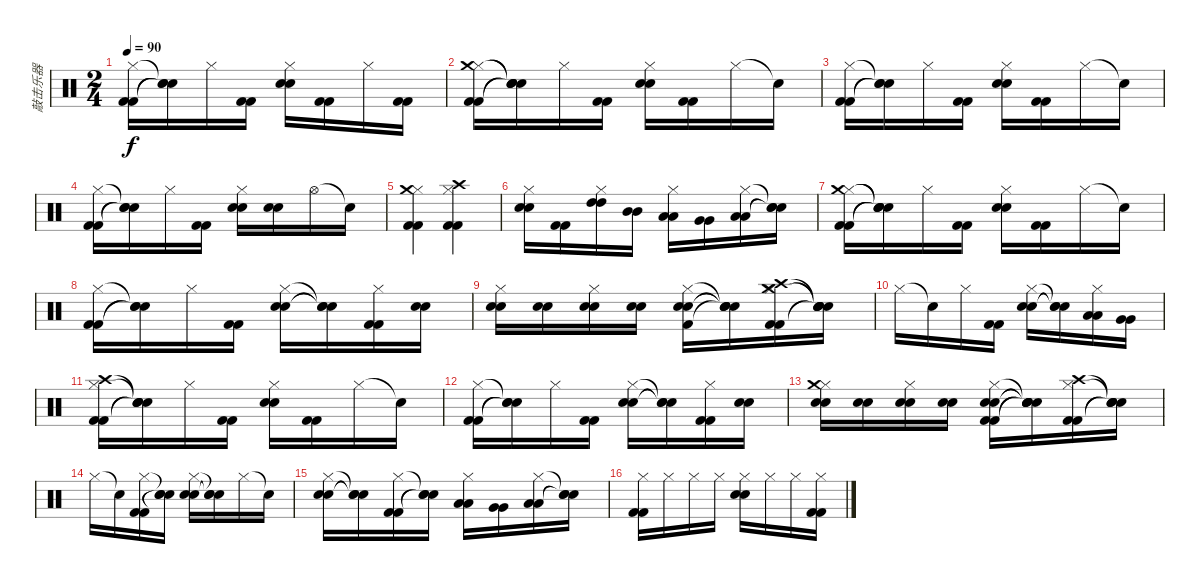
\track ("敲击乐器" "敲击乐器") {instrument percussion}
\staff {score}
\articulation defaults
\ts (2 4)
\tempo 90
\clef neutral
\ks c
("Hi-Hat (closed)" "Kick (hit) 2" "Kick (hit) 2").16{dy f} ("Snare (hit)"{t} "Snare (hit)"{t} "Snare (hit)"{t}).16 "Hi-Hat (closed)".16 ("Kick (hit) 2" "Kick (hit) 2").16 ("Hi-Hat (closed)" "Electric Snare (hit)" "Electric Snare (hit)").16 ("Kick (hit) 2" "Kick (hit) 2").16 "Hi-Hat (closed)".16 ("Kick (hit) 2" "Kick (hit) 2").16 |
("Hi-Hat (closed)" "Crash medium (hit)" "Kick (hit) 2" "Kick (hit) 2").16 ("Snare (hit)"{t} "Snare (hit)"{t} "Snare (hit)"{t} "Snare (hit)"{t}).16 "Hi-Hat (closed)".16 ("Kick (hit) 2" "Kick (hit) 2").16 ("Hi-Hat (closed)" "Electric Snare (hit)" "Electric Snare (hit)").16 ("Kick (hit) 2" "Kick (hit) 2").16 "Hi-Hat (closed)".16 "Snare (hit)"{t}.16 |
("Hi-Hat (closed)" "Kick (hit) 2" "Kick (hit) 2").16 ("Snare (hit)"{t} "Snare (hit)"{t} "Snare (hit)"{t}).16 "Hi-Hat (closed)".16 ("Kick (hit) 2" "Kick (hit) 2").16 ("Hi-Hat (closed)" "Electric Snare (hit)" "Electric Snare (hit)").16 ("Kick (hit) 2" "Kick (hit) 2").16 "Hi-Hat (closed)".16 "Snare (hit)"{t}.16 |
("Hi-Hat (closed)" "Kick (hit) 2" "Kick (hit) 2").16 ("Snare (hit)"{t} "Snare (hit)"{t} "Snare (hit)"{t}).16 "Hi-Hat (closed)".16 ("Kick (hit) 2" "Kick (hit) 2").16 ("Hi-Hat (closed)" "Electric Snare (hit)" "Electric Snare (hit)").16 ("Electric Snare (hit)" "Electric Snare (hit)").16 "Hi-Hat (open)".16 "Snare (hit)"{t}.16 |
("Hi-Hat (closed)" "Crash medium (hit)" "Kick (hit) 2" "Kick (hit) 2").4 ("Hi-Hat (closed)" "Crash high (hit)" "Kick (hit) 2" "Kick (hit) 2").4 |
("Hi-Hat (closed)" "Electric Snare (hit)" "Electric Snare (hit)").16 ("Kick (hit) 2" "Kick (hit) 2").16 ("Hi-Hat (closed)" "High Tom (hit)" "High Tom (hit)").16 ("Mid Tom (hit)" "Mid Tom (hit)").16 ("Hi-Hat (closed)" "Low Tom (hit)" "Low Tom (hit)").16 ("Very Low Tom (hit)" "Very Low Tom (hit)").16 ("Hi-Hat (closed)" "Low Floor Tom (hit)" "Low Floor Tom (hit)").16 ("Snare (hit)"{t} "Snare (hit)"{t} "Snare (hit)"{t}).16 |
("Hi-Hat (closed)" "Crash medium (hit)" "Kick (hit) 2" "Kick (hit) 2").16 ("Snare (hit)"{t} "Snare (hit)"{t} "Snare (hit)"{t} "Snare (hit)"{t}).16 "Hi-Hat (closed)".16 ("Kick (hit) 2" "Kick (hit) 2").16 ("Hi-Hat (closed)" "Electric Snare (hit)" "Electric Snare (hit)").16 ("Kick (hit) 2" "Kick (hit) 2").16 "Hi-Hat (closed)".16 "Snare (hit)"{t}.16 |
("Hi-Hat (closed)" "Kick (hit) 2" "Kick (hit) 2").16 ("Snare (hit)"{t} "Snare (hit)"{t} "Snare (hit)"{t}).16 "Hi-Hat (closed)".16 ("Kick (hit) 2" "Kick (hit) 2").16 ("Hi-Hat (closed)" "Electric Snare (hit)" "Electric Snare (hit)").16 ("Snare (hit)"{t} "Snare (hit)"{t} "Snare (hit)"{t}).16 ("Hi-Hat (closed)" "Kick (hit) 2" "Kick (hit) 2").16 ("Snare (hit) 2" "Snare (hit) 2").16 |
("Hi-Hat (closed)" "Snare (hit) 2" "Snare (hit) 2").16 ("Snare (hit) 2" "Snare (hit) 2").16 ("Hi-Hat (closed)" "Snare (hit) 2" "Snare (hit) 2").16 ("Snare (hit) 2" "Snare (hit) 2").16 ("Hi-Hat (closed)" "Snare (hit) 2" "Snare (hit) 2" "Kick (hit) 2").16 ("Snare (hit)"{t} "Snare (hit)"{t} "Snare (hit)"{t} "Snare (hit)"{t}).16 ("Hi-Hat (closed)" "Crash medium (hit)" "Crash high (hit)" "Kick (hit) 2" "Kick (hit) 2").16 ("Snare (hit)"{t} "Snare (hit)"{t} "Snare (hit)"{t} "Snare (hit)"{t} "Snare (hit)"{t}).16 |
"Hi-Hat (closed)".16 "Snare (hit)"{t}.16 "Hi-Hat (closed)".16 ("Kick (hit) 2" "Kick (hit) 2").16 ("Hi-Hat (closed)" "Electric Snare (hit)" "Electric Snare (hit)").16 ("Snare (hit)"{t} "Snare (hit)"{t} "Snare (hit)"{t}).16 ("Hi-Hat (closed)" "Low Tom (hit)" "Low Tom (hit)").16 ("Very Low Tom (hit)" "Very Low Tom (hit)").16 |
("Hi-Hat (closed)" "Crash high (hit)" "Kick (hit) 2" "Kick (hit) 2").16 ("Snare (hit)"{t} "Snare (hit)"{t} "Snare (hit)"{t} "Snare (hit)"{t}).16 "Hi-Hat (closed)".16 ("Kick (hit) 2" "Kick (hit) 2").16 ("Hi-Hat (closed)" "Electric Snare (hit)" "Electric Snare (hit)").16 ("Kick (hit) 2" "Kick (hit) 2").16 "Hi-Hat (closed)".16 "Snare (hit)"{t}.16 |
("Hi-Hat (closed)" "Kick (hit) 2" "Kick (hit) 2").16 ("Snare (hit)"{t} "Snare (hit)"{t} "Snare (hit)"{t}).16 "Hi-Hat (closed)".16 ("Kick (hit) 2" "Kick (hit) 2").16 ("Hi-Hat (closed)" "Electric Snare (hit)" "Electric Snare (hit)").16 ("Snare (hit)"{t} "Snare (hit)"{t} "Snare (hit)"{t}).16 ("Hi-Hat (closed)" "Kick (hit) 2" "Kick (hit) 2").16 ("Snare (hit) 2" "Snare (hit) 2").16 |
("Hi-Hat (closed)" "Crash medium (hit)" "Snare (hit) 2" "Snare (hit) 2").16 ("Snare (hit) 2" "Snare (hit) 2").16 ("Hi-Hat (closed)" "Snare (hit) 2" "Snare (hit) 2").16 ("Snare (hit) 2" "Snare (hit) 2").16 ("Hi-Hat (closed)" "Snare (hit) 2" "Snare (hit) 2" "Kick (hit) 2" "Kick (hit) 2").16 ("Snare (hit)"{t} "Snare (hit)"{t} "Snare (hit)"{t} "Snare (hit)"{t} "Snare (hit)"{t}).16 ("Hi-Hat (closed)" "Crash high (hit)" "Kick (hit) 2" "Kick (hit) 2").16 ("Snare (hit)"{t} "Snare (hit)"{t} "Snare (hit)"{t} "Snare (hit)"{t}).16 |
"Hi-Hat (closed)".16 "Snare (hit)"{t}.16 ("Hi-Hat (closed)" "Kick (hit) 2" "Kick (hit) 2").16 ("Snare (hit)"{t} "Snare (hit)"{t} "Snare (hit)"{t}).16 ("Hi-Hat (closed)" "Electric Snare (hit)" "Electric Snare (hit)").16 ("Snare (hit)"{t} "Snare (hit)"{t} "Snare (hit)"{t}).16 "Hi-Hat (closed)".16 "Snare (hit)"{t}.16 |
("Hi-Hat (closed)" "Electric Snare (hit)" "Electric Snare (hit)").16 ("Snare (hit)"{t} "Snare (hit)"{t} "Snare (hit)"{t}).16 ("Hi-Hat (closed)" "Kick (hit) 2" "Kick (hit) 2").16 ("Snare (hit)"{t} "Snare (hit)"{t} "Snare (hit)"{t}).16 ("Hi-Hat (closed)" "Low Tom (hit)" "Low Tom (hit)").16 ("Very Low Tom (hit)" "Very Low Tom (hit)").16 ("Hi-Hat (closed)" "Low Floor Tom (hit)" "Low Floor Tom (hit)").16 ("Snare (hit)"{t} "Snare (hit)"{t} "Snare (hit)"{t}).16 |
("Hi-Hat (closed)" "Kick (hit) 2" "Kick (hit) 2").16 "Hi-Hat (closed)".16 "Hi-Hat (closed)".16 "Hi-Hat (closed)".16 ("Hi-Hat (closed)" "Electric Snare (hit)" "Electric Snare (hit)").16 "Hi-Hat (closed)".16 "Hi-Hat (closed)".16 ("Hi-Hat (closed)" "Kick (hit) 2" "Kick (hit) 2").16
